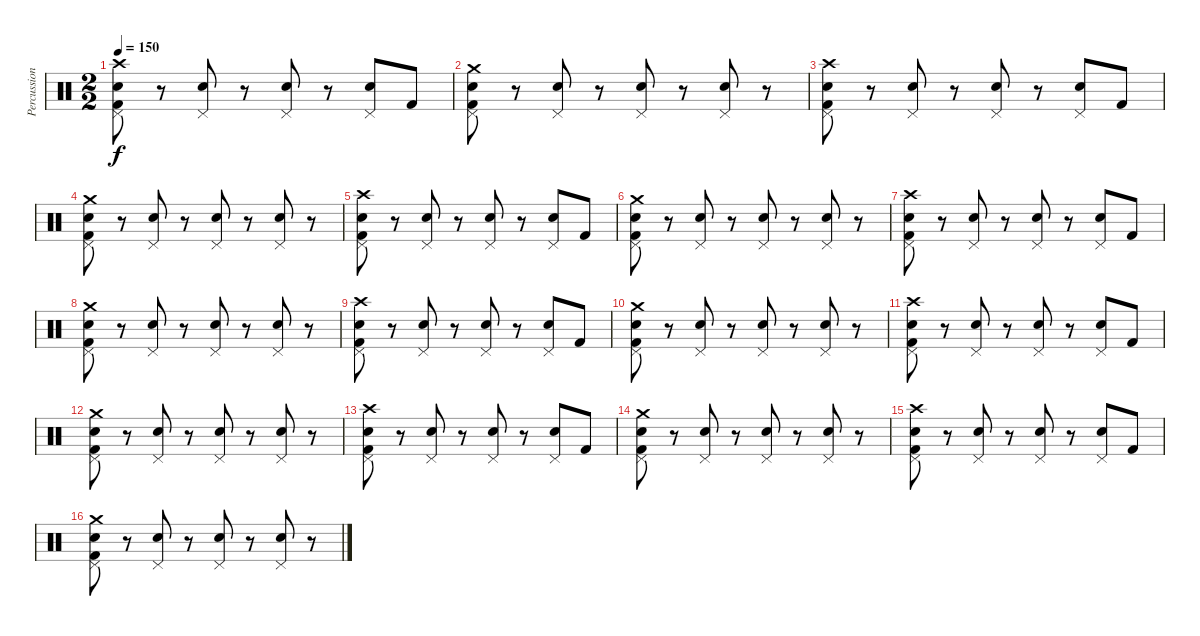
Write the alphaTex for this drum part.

\track ("Percussion" "Percussion") {instrument percussion}
\staff {score}
\articulation defaults
\ts (2 2)
\tempo 150
\clef neutral
\ks c
("Crash high (hit)" "Pedal Hi-Hat (hit)" "Snare (hit) 2" "Kick (hit) 2").8{dy f} r.8 ("Pedal Hi-Hat (hit)" "Snare (hit) 2").8 r.8 ("Pedal Hi-Hat (hit)" "Snare (hit) 2").8 r.8 ("Pedal Hi-Hat (hit)" "Snare (hit) 2").8 "Kick (hit) 2".8 |
("Crash medium (hit)" "Pedal Hi-Hat (hit)" "Snare (hit) 2" "Kick (hit) 2").8 r.8 ("Pedal Hi-Hat (hit)" "Snare (hit) 2").8 r.8 ("Pedal Hi-Hat (hit)" "Snare (hit) 2").8 r.8 ("Pedal Hi-Hat (hit)" "Snare (hit) 2").8 r.8 |
("Crash high (hit)" "Pedal Hi-Hat (hit)" "Snare (hit) 2" "Kick (hit) 2").8 r.8 ("Pedal Hi-Hat (hit)" "Snare (hit) 2").8 r.8 ("Pedal Hi-Hat (hit)" "Snare (hit) 2").8 r.8 ("Pedal Hi-Hat (hit)" "Snare (hit) 2").8 "Kick (hit) 2".8 |
("Crash medium (hit)" "Pedal Hi-Hat (hit)" "Snare (hit) 2" "Kick (hit) 2").8 r.8 ("Pedal Hi-Hat (hit)" "Snare (hit) 2").8 r.8 ("Pedal Hi-Hat (hit)" "Snare (hit) 2").8 r.8 ("Pedal Hi-Hat (hit)" "Snare (hit) 2").8 r.8 |
("Crash high (hit)" "Pedal Hi-Hat (hit)" "Snare (hit) 2" "Kick (hit) 2").8 r.8 ("Pedal Hi-Hat (hit)" "Snare (hit) 2").8 r.8 ("Pedal Hi-Hat (hit)" "Snare (hit) 2").8 r.8 ("Pedal Hi-Hat (hit)" "Snare (hit) 2").8 "Kick (hit) 2".8 |
("Crash medium (hit)" "Pedal Hi-Hat (hit)" "Snare (hit) 2" "Kick (hit) 2").8 r.8 ("Pedal Hi-Hat (hit)" "Snare (hit) 2").8 r.8 ("Pedal Hi-Hat (hit)" "Snare (hit) 2").8 r.8 ("Pedal Hi-Hat (hit)" "Snare (hit) 2").8 r.8 |
("Crash high (hit)" "Pedal Hi-Hat (hit)" "Snare (hit) 2" "Kick (hit) 2").8 r.8 ("Pedal Hi-Hat (hit)" "Snare (hit) 2").8 r.8 ("Pedal Hi-Hat (hit)" "Snare (hit) 2").8 r.8 ("Pedal Hi-Hat (hit)" "Snare (hit) 2").8 "Kick (hit) 2".8 |
("Crash medium (hit)" "Pedal Hi-Hat (hit)" "Snare (hit) 2" "Kick (hit) 2").8 r.8 ("Pedal Hi-Hat (hit)" "Snare (hit) 2").8 r.8 ("Pedal Hi-Hat (hit)" "Snare (hit) 2").8 r.8 ("Pedal Hi-Hat (hit)" "Snare (hit) 2").8 r.8 |
("Crash high (hit)" "Pedal Hi-Hat (hit)" "Snare (hit) 2" "Kick (hit) 2").8 r.8 ("Pedal Hi-Hat (hit)" "Snare (hit) 2").8 r.8 ("Pedal Hi-Hat (hit)" "Snare (hit) 2").8 r.8 ("Pedal Hi-Hat (hit)" "Snare (hit) 2").8 "Kick (hit) 2".8 |
("Crash medium (hit)" "Pedal Hi-Hat (hit)" "Snare (hit) 2" "Kick (hit) 2").8 r.8 ("Pedal Hi-Hat (hit)" "Snare (hit) 2").8 r.8 ("Pedal Hi-Hat (hit)" "Snare (hit) 2").8 r.8 ("Pedal Hi-Hat (hit)" "Snare (hit) 2").8 r.8 |
("Crash high (hit)" "Pedal Hi-Hat (hit)" "Snare (hit) 2" "Kick (hit) 2").8 r.8 ("Pedal Hi-Hat (hit)" "Snare (hit) 2").8 r.8 ("Pedal Hi-Hat (hit)" "Snare (hit) 2").8 r.8 ("Pedal Hi-Hat (hit)" "Snare (hit) 2").8 "Kick (hit) 2".8 |
("Crash medium (hit)" "Pedal Hi-Hat (hit)" "Snare (hit) 2" "Kick (hit) 2").8 r.8 ("Pedal Hi-Hat (hit)" "Snare (hit) 2").8 r.8 ("Pedal Hi-Hat (hit)" "Snare (hit) 2").8 r.8 ("Pedal Hi-Hat (hit)" "Snare (hit) 2").8 r.8 |
("Crash high (hit)" "Pedal Hi-Hat (hit)" "Snare (hit) 2" "Kick (hit) 2").8 r.8 ("Pedal Hi-Hat (hit)" "Snare (hit) 2").8 r.8 ("Pedal Hi-Hat (hit)" "Snare (hit) 2").8 r.8 ("Pedal Hi-Hat (hit)" "Snare (hit) 2").8 "Kick (hit) 2".8 |
("Crash medium (hit)" "Pedal Hi-Hat (hit)" "Snare (hit) 2" "Kick (hit) 2").8 r.8 ("Pedal Hi-Hat (hit)" "Snare (hit) 2").8 r.8 ("Pedal Hi-Hat (hit)" "Snare (hit) 2").8 r.8 ("Pedal Hi-Hat (hit)" "Snare (hit) 2").8 r.8 |
("Crash high (hit)" "Pedal Hi-Hat (hit)" "Snare (hit) 2" "Kick (hit) 2").8 r.8 ("Pedal Hi-Hat (hit)" "Snare (hit) 2").8 r.8 ("Pedal Hi-Hat (hit)" "Snare (hit) 2").8 r.8 ("Pedal Hi-Hat (hit)" "Snare (hit) 2").8 "Kick (hit) 2".8 |
("Crash medium (hit)" "Pedal Hi-Hat (hit)" "Snare (hit) 2" "Kick (hit) 2").8 r.8 ("Pedal Hi-Hat (hit)" "Snare (hit) 2").8 r.8 ("Pedal Hi-Hat (hit)" "Snare (hit) 2").8 r.8 ("Pedal Hi-Hat (hit)" "Snare (hit) 2").8 r.8
